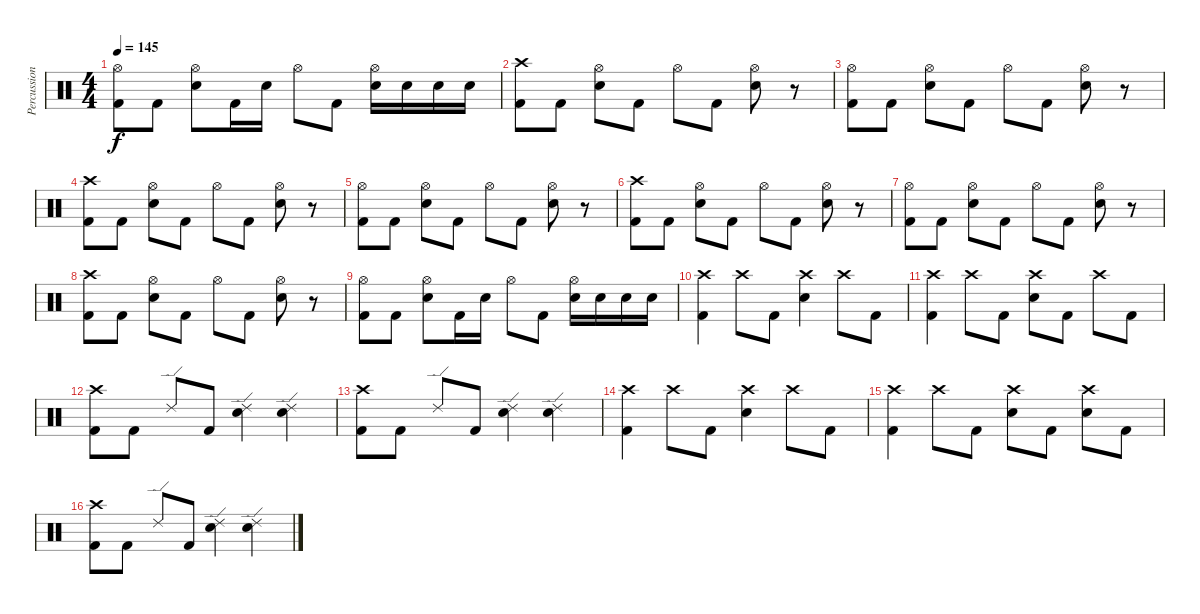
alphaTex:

\track ("Percussion" "Percussion") {instrument percussion}
\staff {score}
\articulation defaults
\ts (4 4)
\tempo 145
\clef neutral
\ks c
("Hi-Hat (open)" "Kick (hit) 2").8{dy f} "Kick (hit) 2".8 ("Hi-Hat (open)" "Electric Snare (hit)").8 "Kick (hit) 2".16 "Electric Snare (hit)".16 "Hi-Hat (open)".8 "Kick (hit) 2".8 ("Hi-Hat (open)" "Electric Snare (hit)").16 "Electric Snare (hit)".16 "Electric Snare (hit)".16 "Electric Snare (hit)".16 |
("Crash high (hit)" "Kick (hit) 2").8 "Kick (hit) 2".8 ("Electric Snare (hit)" "Hi-Hat (open)").8 "Kick (hit) 2".8 "Hi-Hat (open)".8 "Kick (hit) 2".8 ("Hi-Hat (open)" "Electric Snare (hit)").8 r.8 |
("Hi-Hat (open)" "Kick (hit) 2").8 "Kick (hit) 2".8 ("Hi-Hat (open)" "Electric Snare (hit)").8 "Kick (hit) 2".8 "Hi-Hat (open)".8 "Kick (hit) 2".8 ("Hi-Hat (open)" "Electric Snare (hit)").8 r.8 |
("Crash high (hit)" "Kick (hit) 2").8 "Kick (hit) 2".8 ("Electric Snare (hit)" "Hi-Hat (open)").8 "Kick (hit) 2".8 "Hi-Hat (open)".8 "Kick (hit) 2".8 ("Hi-Hat (open)" "Electric Snare (hit)").8 r.8 |
("Hi-Hat (open)" "Kick (hit) 2").8 "Kick (hit) 2".8 ("Hi-Hat (open)" "Electric Snare (hit)").8 "Kick (hit) 2".8 "Hi-Hat (open)".8 "Kick (hit) 2".8 ("Hi-Hat (open)" "Electric Snare (hit)").8 r.8 |
("Crash high (hit)" "Kick (hit) 2").8 "Kick (hit) 2".8 ("Electric Snare (hit)" "Hi-Hat (open)").8 "Kick (hit) 2".8 "Hi-Hat (open)".8 "Kick (hit) 2".8 ("Hi-Hat (open)" "Electric Snare (hit)").8 r.8 |
("Hi-Hat (open)" "Kick (hit) 2").8 "Kick (hit) 2".8 ("Hi-Hat (open)" "Electric Snare (hit)").8 "Kick (hit) 2".8 "Hi-Hat (open)".8 "Kick (hit) 2".8 ("Hi-Hat (open)" "Electric Snare (hit)").8 r.8 |
("Crash high (hit)" "Kick (hit) 2").8 "Kick (hit) 2".8 ("Electric Snare (hit)" "Hi-Hat (open)").8 "Kick (hit) 2".8 "Hi-Hat (open)".8 "Kick (hit) 2".8 ("Hi-Hat (open)" "Electric Snare (hit)").8 r.8 |
("Hi-Hat (open)" "Kick (hit) 2").8 "Kick (hit) 2".8 ("Hi-Hat (open)" "Electric Snare (hit)").8 "Kick (hit) 2".16 "Electric Snare (hit)".16 "Hi-Hat (open)".8 "Kick (hit) 2".8 ("Hi-Hat (open)" "Electric Snare (hit)").16 "Electric Snare (hit)".16 "Electric Snare (hit)".16 "Electric Snare (hit)".16 |
("Crash high (hit)" "Kick (hit) 2").4 "Crash high (hit)".8 "Kick (hit) 2".8 ("Crash high (hit)" "Electric Snare (hit)").4 "Crash high (hit)".8 "Kick (hit) 2".8 |
("Crash high (hit)" "Kick (hit) 2").4 "Crash high (hit)".8 "Kick (hit) 2".8 ("Crash high (hit)" "Electric Snare (hit)").8 "Kick (hit) 2".8 "Crash high (hit)".8 "Kick (hit) 2".8 |
("Crash high (hit)" "Kick (hit) 2").8 "Kick (hit) 2".8 "Ride (edge) 2".8 "Kick (hit) 2".8 ("Ride (edge) 2" "Electric Snare (hit)").4 ("Ride (edge) 2" "Electric Snare (hit)").4 |
("Crash high (hit)" "Kick (hit) 2").8 "Kick (hit) 2".8 "Ride (edge) 2".8 "Kick (hit) 2".8 ("Ride (edge) 2" "Electric Snare (hit)").4 ("Ride (edge) 2" "Electric Snare (hit)").4 |
("Crash high (hit)" "Kick (hit) 2").4 "Crash high (hit)".8 "Kick (hit) 2".8 ("Crash high (hit)" "Electric Snare (hit)").4 "Crash high (hit)".8 "Kick (hit) 2".8 |
("Crash high (hit)" "Kick (hit) 2").4 "Crash high (hit)".8 "Kick (hit) 2".8 ("Crash high (hit)" "Electric Snare (hit)").8 "Kick (hit) 2".8 ("Crash high (hit)" "Electric Snare (hit)").8 "Kick (hit) 2".8 |
("Crash high (hit)" "Kick (hit) 2").8 "Kick (hit) 2".8 "Ride (edge) 2".8 "Kick (hit) 2".8 ("Ride (edge) 2" "Electric Snare (hit)").4 ("Ride (edge) 2" "Electric Snare (hit)").4
